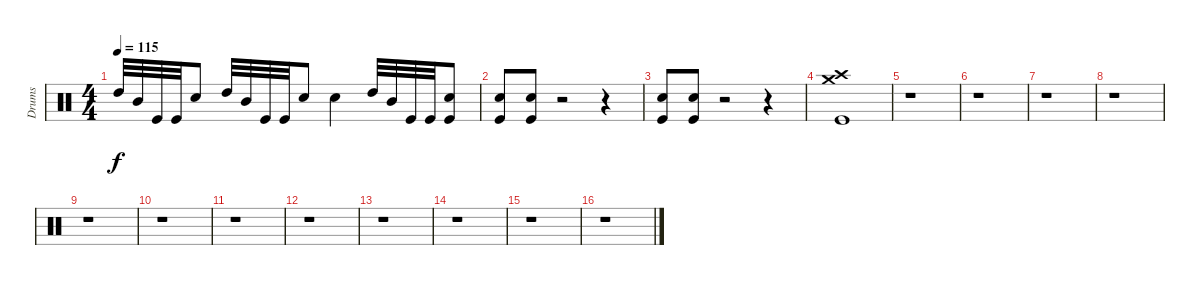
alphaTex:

\track ("Drums" "Drums") {instrument percussion}
\staff {score}
\articulation defaults
\ts (4 4)
\tempo 115
\clef neutral
\ks c "High Tom (hit)".32{dy f} "Mid Tom (hit)".32 "Kick (hit)".32 "Kick (hit)".32 "Electric Snare (hit)".8 "High Tom (hit)".32 "Mid Tom (hit)".32 "Kick (hit)".32 "Kick (hit)".32 "Electric Snare (hit)".8 "Electric Snare (hit)".4 "High Tom (hit)".32 "Mid Tom (hit)".32 "Kick (hit)".32 "Kick (hit)".32
("Electric Snare (hit)" "Kick (hit)").8 |
("Electric Snare (hit)" "Kick (hit)").8 ("Electric Snare (hit)" "Kick (hit)").8 r.2 r.4 |
("Electric Snare (hit)" "Kick (hit)").8 ("Electric Snare (hit)" "Kick (hit)").8 r.2 r.4 |
("Crash high (hit)" "Crash medium (hit)" "Kick (hit)").1 |
r.1 |
r.1 |
r.1 |
r.1 |
r.1 |
r.1 |
r.1 |
r.1 |
r.1 |
r.1 |
r.1 |
r.1
